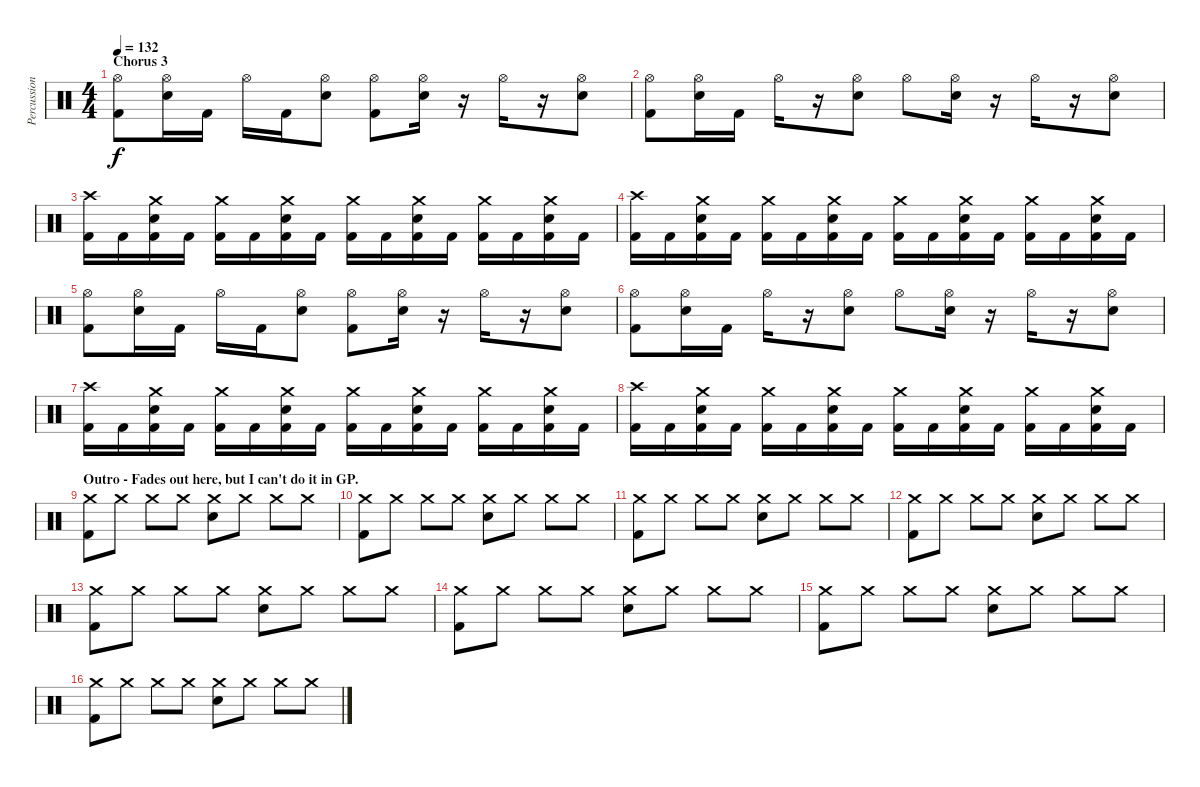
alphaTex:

\track ("Percussion" "Percussion") {instrument percussion}
\staff {score}
\articulation defaults
\ts (4 4)
\section ("" "Chorus 3")
\tempo 132
\clef neutral
\ks c
("Hi-Hat (open)" "Kick (hit) 2").8{dy f} ("Hi-Hat (open)" "Electric Snare (hit)").16 "Kick (hit) 2".16 "Hi-Hat (open)".16 "Kick (hit) 2".16 ("Hi-Hat (open)" "Electric Snare (hit)").8 ("Hi-Hat (open)" "Kick (hit) 2").8 ("Hi-Hat (open)" "Electric Snare (hit)").16 r.16 "Hi-Hat (open)".16 r.16 ("Hi-Hat (open)" "Electric Snare (hit)").8 |
("Hi-Hat (open)" "Kick (hit) 2").8 ("Hi-Hat (open)" "Electric Snare (hit)").16 "Kick (hit) 2".16 "Hi-Hat (open)".16 r.16 ("Hi-Hat (open)" "Electric Snare (hit)").8 "Hi-Hat (open)".8 ("Hi-Hat (open)" "Electric Snare (hit)").16 r.16 "Hi-Hat (open)".16 r.16 ("Hi-Hat (open)" "Electric Snare (hit)").8 |
("Crash high (hit)" "Kick (hit) 2").16 "Kick (hit) 2".16 ("Crash medium (hit)" "Electric Snare (hit)" "Kick (hit) 2").16 "Kick (hit) 2".16 ("Crash medium (hit)" "Kick (hit) 2").16 "Kick (hit) 2".16 ("Crash medium (hit)" "Electric Snare (hit)" "Kick (hit) 2").16 "Kick (hit) 2".16 ("Crash medium (hit)" "Kick (hit) 2").16 "Kick (hit) 2".16 ("Crash medium (hit)" "Electric Snare (hit)" "Kick (hit) 2").16 "Kick (hit) 2".16 ("Crash medium (hit)" "Kick (hit) 2").16 "Kick (hit) 2".16 ("Crash medium (hit)" "Electric Snare (hit)" "Kick (hit) 2").16 "Kick (hit) 2".16 |
("Crash high (hit)" "Kick (hit) 2").16 "Kick (hit) 2".16 ("Crash medium (hit)" "Electric Snare (hit)" "Kick (hit) 2").16 "Kick (hit) 2".16 ("Crash medium (hit)" "Kick (hit) 2").16 "Kick (hit) 2".16 ("Crash medium (hit)" "Electric Snare (hit)" "Kick (hit) 2").16 "Kick (hit) 2".16 ("Crash medium (hit)" "Kick (hit) 2").16 "Kick (hit) 2".16 ("Crash medium (hit)" "Electric Snare (hit)" "Kick (hit) 2").16 "Kick (hit) 2".16 ("Crash medium (hit)" "Kick (hit) 2").16 "Kick (hit) 2".16 ("Crash medium (hit)" "Electric Snare (hit)" "Kick (hit) 2").16 "Kick (hit) 2".16 |
("Hi-Hat (open)" "Kick (hit) 2").8 ("Hi-Hat (open)" "Electric Snare (hit)").16 "Kick (hit) 2".16 "Hi-Hat (open)".16 "Kick (hit) 2".16 ("Hi-Hat (open)" "Electric Snare (hit)").8 ("Hi-Hat (open)" "Kick (hit) 2").8 ("Hi-Hat (open)" "Electric Snare (hit)").16 r.16 "Hi-Hat (open)".16 r.16 ("Hi-Hat (open)" "Electric Snare (hit)").8 |
("Hi-Hat (open)" "Kick (hit) 2").8 ("Hi-Hat (open)" "Electric Snare (hit)").16 "Kick (hit) 2".16 "Hi-Hat (open)".16 r.16 ("Hi-Hat (open)" "Electric Snare (hit)").8 "Hi-Hat (open)".8 ("Hi-Hat (open)" "Electric Snare (hit)").16 r.16 "Hi-Hat (open)".16 r.16 ("Hi-Hat (open)" "Electric Snare (hit)").8 |
("Crash high (hit)" "Kick (hit) 2").16 "Kick (hit) 2".16 ("Crash medium (hit)" "Electric Snare (hit)" "Kick (hit) 2").16 "Kick (hit) 2".16 ("Crash medium (hit)" "Kick (hit) 2").16 "Kick (hit) 2".16 ("Crash medium (hit)" "Electric Snare (hit)" "Kick (hit) 2").16 "Kick (hit) 2".16 ("Crash medium (hit)" "Kick (hit) 2").16 "Kick (hit) 2".16 ("Crash medium (hit)" "Electric Snare (hit)" "Kick (hit) 2").16 "Kick (hit) 2".16 ("Crash medium (hit)" "Kick (hit) 2").16 "Kick (hit) 2".16 ("Crash medium (hit)" "Electric Snare (hit)" "Kick (hit) 2").16 "Kick (hit) 2".16 |
("Crash high (hit)" "Kick (hit) 2").16 "Kick (hit) 2".16 ("Crash medium (hit)" "Electric Snare (hit)" "Kick (hit) 2").16 "Kick (hit) 2".16 ("Crash medium (hit)" "Kick (hit) 2").16 "Kick (hit) 2".16 ("Crash medium (hit)" "Electric Snare (hit)" "Kick (hit) 2").16 "Kick (hit) 2".16 ("Crash medium (hit)" "Kick (hit) 2").16 "Kick (hit) 2".16 ("Crash medium (hit)" "Electric Snare (hit)" "Kick (hit) 2").16 "Kick (hit) 2".16 ("Crash medium (hit)" "Kick (hit) 2").16 "Kick (hit) 2".16 ("Crash medium (hit)" "Electric Snare (hit)" "Kick (hit) 2").16 "Kick (hit) 2".16 |
\section ("" "Outro - Fades out here, but I can't do it in GP.")
("Crash medium (hit)" "Kick (hit) 2").8 "Crash medium (hit)".8 "Crash medium (hit)".8 "Crash medium (hit)".8 ("Crash medium (hit)" "Electric Snare (hit)").8 "Crash medium (hit)".8 "Crash medium (hit)".8 "Crash medium (hit)".8 |
("Crash medium (hit)" "Kick (hit) 2").8 "Crash medium (hit)".8 "Crash medium (hit)".8 "Crash medium (hit)".8 ("Crash medium (hit)" "Electric Snare (hit)").8 "Crash medium (hit)".8 "Crash medium (hit)".8 "Crash medium (hit)".8 |
("Crash medium (hit)" "Kick (hit) 2").8 "Crash medium (hit)".8 "Crash medium (hit)".8 "Crash medium (hit)".8 ("Crash medium (hit)" "Electric Snare (hit)").8 "Crash medium (hit)".8 "Crash medium (hit)".8 "Crash medium (hit)".8 |
("Crash medium (hit)" "Kick (hit) 2").8 "Crash medium (hit)".8 "Crash medium (hit)".8 "Crash medium (hit)".8 ("Crash medium (hit)" "Electric Snare (hit)").8 "Crash medium (hit)".8 "Crash medium (hit)".8 "Crash medium (hit)".8 |
("Crash medium (hit)" "Kick (hit) 2").8 "Crash medium (hit)".8 "Crash medium (hit)".8 "Crash medium (hit)".8 ("Crash medium (hit)" "Electric Snare (hit)").8 "Crash medium (hit)".8 "Crash medium (hit)".8 "Crash medium (hit)".8 |
("Crash medium (hit)" "Kick (hit) 2").8 "Crash medium (hit)".8 "Crash medium (hit)".8 "Crash medium (hit)".8 ("Crash medium (hit)" "Electric Snare (hit)").8 "Crash medium (hit)".8 "Crash medium (hit)".8 "Crash medium (hit)".8 |
("Crash medium (hit)" "Kick (hit) 2").8 "Crash medium (hit)".8 "Crash medium (hit)".8 "Crash medium (hit)".8 ("Crash medium (hit)" "Electric Snare (hit)").8 "Crash medium (hit)".8 "Crash medium (hit)".8 "Crash medium (hit)".8 |
("Crash medium (hit)" "Kick (hit) 2").8 "Crash medium (hit)".8 "Crash medium (hit)".8 "Crash medium (hit)".8 ("Crash medium (hit)" "Electric Snare (hit)").8 "Crash medium (hit)".8 "Crash medium (hit)".8 "Crash medium (hit)".8
